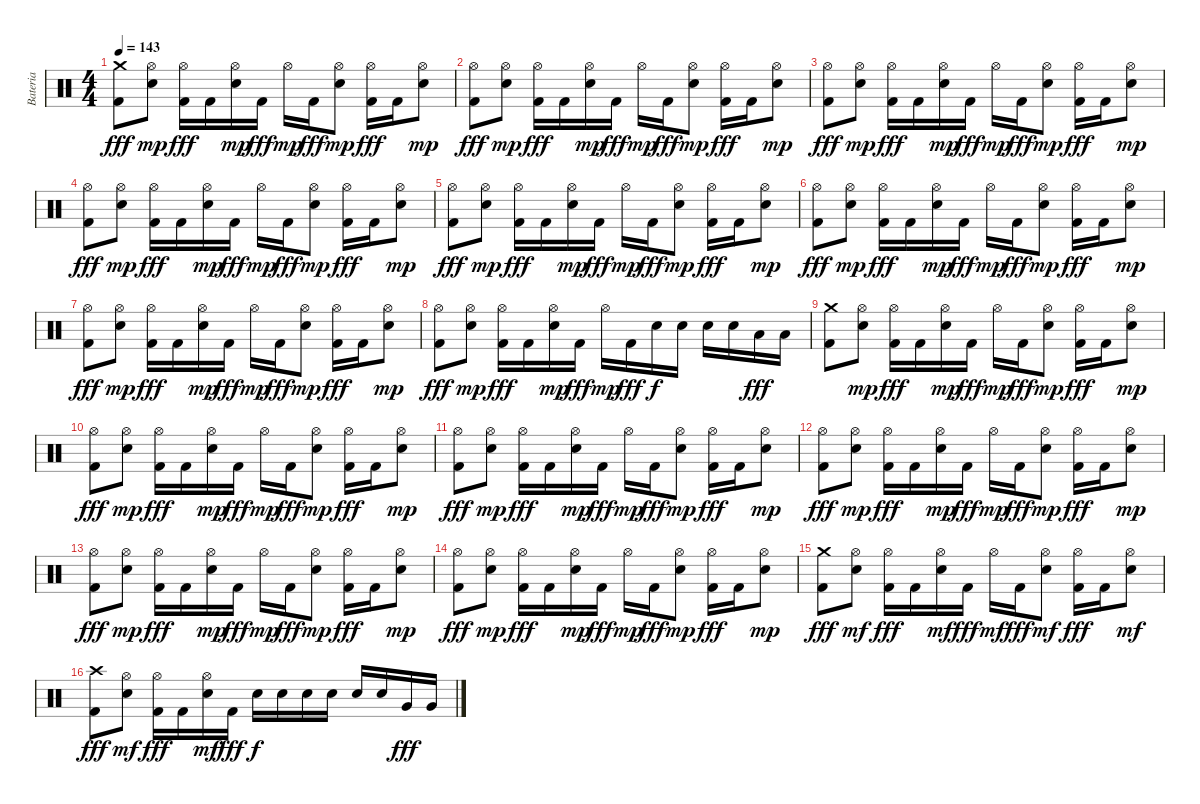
\track ("Bateria" "Bateria") {instrument percussion}
\staff {score}
\articulation defaults
\ts (4 4)
\tempo 143
\clef neutral
\ks c
("Crash medium (hit)" "Kick (hit) 2").8{dy fff} ("Hi-Hat (open)" "Electric Snare (hit)").8{dy mp} ("Hi-Hat (open)" "Kick (hit) 2").16{dy fff} "Kick (hit) 2".16 ("Hi-Hat (open)" "Electric Snare (hit)").16{dy mp} "Kick (hit) 2".16{dy fff} "Hi-Hat (open)".16{dy mp} "Kick (hit) 2".16{dy fff} ("Hi-Hat (open)" "Electric Snare (hit)").8{dy mp} ("Hi-Hat (open)" "Kick (hit) 2").16{dy fff} "Kick (hit) 2".16 ("Hi-Hat (open)" "Electric Snare (hit)").8{dy mp} |
("Hi-Hat (open)" "Kick (hit) 2").8{dy fff} ("Hi-Hat (open)" "Electric Snare (hit)").8{dy mp} ("Hi-Hat (open)" "Kick (hit) 2").16{dy fff} "Kick (hit) 2".16 ("Hi-Hat (open)" "Electric Snare (hit)").16{dy mp} "Kick (hit) 2".16{dy fff} "Hi-Hat (open)".16{dy mp} "Kick (hit) 2".16{dy fff} ("Hi-Hat (open)" "Electric Snare (hit)").8{dy mp} ("Hi-Hat (open)" "Kick (hit) 2").16{dy fff} "Kick (hit) 2".16 ("Hi-Hat (open)" "Electric Snare (hit)").8{dy mp} |
("Hi-Hat (open)" "Kick (hit) 2").8{dy fff} ("Hi-Hat (open)" "Electric Snare (hit)").8{dy mp} ("Hi-Hat (open)" "Kick (hit) 2").16{dy fff} "Kick (hit) 2".16 ("Hi-Hat (open)" "Electric Snare (hit)").16{dy mp} "Kick (hit) 2".16{dy fff} "Hi-Hat (open)".16{dy mp} "Kick (hit) 2".16{dy fff} ("Hi-Hat (open)" "Electric Snare (hit)").8{dy mp} ("Hi-Hat (open)" "Kick (hit) 2").16{dy fff} "Kick (hit) 2".16 ("Hi-Hat (open)" "Electric Snare (hit)").8{dy mp} |
("Hi-Hat (open)" "Kick (hit) 2").8{dy fff} ("Hi-Hat (open)" "Electric Snare (hit)").8{dy mp} ("Hi-Hat (open)" "Kick (hit) 2").16{dy fff} "Kick (hit) 2".16 ("Hi-Hat (open)" "Electric Snare (hit)").16{dy mp} "Kick (hit) 2".16{dy fff} "Hi-Hat (open)".16{dy mp} "Kick (hit) 2".16{dy fff} ("Hi-Hat (open)" "Electric Snare (hit)").8{dy mp} ("Hi-Hat (open)" "Kick (hit) 2").16{dy fff} "Kick (hit) 2".16 ("Hi-Hat (open)" "Electric Snare (hit)").8{dy mp} |
("Hi-Hat (open)" "Kick (hit) 2").8{dy fff} ("Hi-Hat (open)" "Electric Snare (hit)").8{dy mp} ("Hi-Hat (open)" "Kick (hit) 2").16{dy fff} "Kick (hit) 2".16 ("Hi-Hat (open)" "Electric Snare (hit)").16{dy mp} "Kick (hit) 2".16{dy fff} "Hi-Hat (open)".16{dy mp} "Kick (hit) 2".16{dy fff} ("Hi-Hat (open)" "Electric Snare (hit)").8{dy mp} ("Hi-Hat (open)" "Kick (hit) 2").16{dy fff} "Kick (hit) 2".16 ("Hi-Hat (open)" "Electric Snare (hit)").8{dy mp} |
("Hi-Hat (open)" "Kick (hit) 2").8{dy fff} ("Hi-Hat (open)" "Electric Snare (hit)").8{dy mp} ("Hi-Hat (open)" "Kick (hit) 2").16{dy fff} "Kick (hit) 2".16 ("Hi-Hat (open)" "Electric Snare (hit)").16{dy mp} "Kick (hit) 2".16{dy fff} "Hi-Hat (open)".16{dy mp} "Kick (hit) 2".16{dy fff} ("Hi-Hat (open)" "Electric Snare (hit)").8{dy mp} ("Hi-Hat (open)" "Kick (hit) 2").16{dy fff} "Kick (hit) 2".16 ("Hi-Hat (open)" "Electric Snare (hit)").8{dy mp} |
("Hi-Hat (open)" "Kick (hit) 2").8{dy fff} ("Hi-Hat (open)" "Electric Snare (hit)").8{dy mp} ("Hi-Hat (open)" "Kick (hit) 2").16{dy fff} "Kick (hit) 2".16 ("Hi-Hat (open)" "Electric Snare (hit)").16{dy mp} "Kick (hit) 2".16{dy fff} "Hi-Hat (open)".16{dy mp} "Kick (hit) 2".16{dy fff} ("Hi-Hat (open)" "Electric Snare (hit)").8{dy mp} ("Hi-Hat (open)" "Kick (hit) 2").16{dy fff} "Kick (hit) 2".16 ("Hi-Hat (open)" "Electric Snare (hit)").8{dy mp} |
("Hi-Hat (open)" "Kick (hit) 2").8{dy fff} ("Hi-Hat (open)" "Electric Snare (hit)").8{dy mp} ("Hi-Hat (open)" "Kick (hit) 2").16{dy fff} "Kick (hit) 2".16 ("Hi-Hat (open)" "Electric Snare (hit)").16{dy mp} "Kick (hit) 2".16{dy fff} "Hi-Hat (open)".16{dy mp} "Kick (hit) 2".16{dy fff} "Electric Snare (hit)".16{dy f} "Electric Snare (hit)".16 "Electric Snare (hit)".16 "Electric Snare (hit)".16 "Low Tom (hit)".16{dy fff} "Low Tom (hit)".16 |
("Crash medium (hit)" "Kick (hit) 2").8 ("Hi-Hat (open)" "Electric Snare (hit)").8{dy mp} ("Hi-Hat (open)" "Kick (hit) 2").16{dy fff} "Kick (hit) 2".16 ("Hi-Hat (open)" "Electric Snare (hit)").16{dy mp} "Kick (hit) 2".16{dy fff} "Hi-Hat (open)".16{dy mp} "Kick (hit) 2".16{dy fff} ("Hi-Hat (open)" "Electric Snare (hit)").8{dy mp} ("Hi-Hat (open)" "Kick (hit) 2").16{dy fff} "Kick (hit) 2".16 ("Hi-Hat (open)" "Electric Snare (hit)").8{dy mp} |
("Hi-Hat (open)" "Kick (hit) 2").8{dy fff} ("Hi-Hat (open)" "Electric Snare (hit)").8{dy mp} ("Hi-Hat (open)" "Kick (hit) 2").16{dy fff} "Kick (hit) 2".16 ("Hi-Hat (open)" "Electric Snare (hit)").16{dy mp} "Kick (hit) 2".16{dy fff} "Hi-Hat (open)".16{dy mp} "Kick (hit) 2".16{dy fff} ("Hi-Hat (open)" "Electric Snare (hit)").8{dy mp} ("Hi-Hat (open)" "Kick (hit) 2").16{dy fff} "Kick (hit) 2".16 ("Hi-Hat (open)" "Electric Snare (hit)").8{dy mp} |
("Hi-Hat (open)" "Kick (hit) 2").8{dy fff} ("Hi-Hat (open)" "Electric Snare (hit)").8{dy mp} ("Hi-Hat (open)" "Kick (hit) 2").16{dy fff} "Kick (hit) 2".16 ("Hi-Hat (open)" "Electric Snare (hit)").16{dy mp} "Kick (hit) 2".16{dy fff} "Hi-Hat (open)".16{dy mp} "Kick (hit) 2".16{dy fff} ("Hi-Hat (open)" "Electric Snare (hit)").8{dy mp} ("Hi-Hat (open)" "Kick (hit) 2").16{dy fff} "Kick (hit) 2".16 ("Hi-Hat (open)" "Electric Snare (hit)").8{dy mp} |
("Hi-Hat (open)" "Kick (hit) 2").8{dy fff} ("Hi-Hat (open)" "Electric Snare (hit)").8{dy mp} ("Hi-Hat (open)" "Kick (hit) 2").16{dy fff} "Kick (hit) 2".16 ("Hi-Hat (open)" "Electric Snare (hit)").16{dy mp} "Kick (hit) 2".16{dy fff} "Hi-Hat (open)".16{dy mp} "Kick (hit) 2".16{dy fff} ("Hi-Hat (open)" "Electric Snare (hit)").8{dy mp} ("Hi-Hat (open)" "Kick (hit) 2").16{dy fff} "Kick (hit) 2".16 ("Hi-Hat (open)" "Electric Snare (hit)").8{dy mp} |
("Hi-Hat (open)" "Kick (hit) 2").8{dy fff} ("Hi-Hat (open)" "Electric Snare (hit)").8{dy mp} ("Hi-Hat (open)" "Kick (hit) 2").16{dy fff} "Kick (hit) 2".16 ("Hi-Hat (open)" "Electric Snare (hit)").16{dy mp} "Kick (hit) 2".16{dy fff} "Hi-Hat (open)".16{dy mp} "Kick (hit) 2".16{dy fff} ("Hi-Hat (open)" "Electric Snare (hit)").8{dy mp} ("Hi-Hat (open)" "Kick (hit) 2").16{dy fff} "Kick (hit) 2".16 ("Hi-Hat (open)" "Electric Snare (hit)").8{dy mp} |
("Hi-Hat (open)" "Kick (hit) 2").8{dy fff} ("Hi-Hat (open)" "Electric Snare (hit)").8{dy mp} ("Hi-Hat (open)" "Kick (hit) 2").16{dy fff} "Kick (hit) 2".16 ("Hi-Hat (open)" "Electric Snare (hit)").16{dy mp} "Kick (hit) 2".16{dy fff} "Hi-Hat (open)".16{dy mp} "Kick (hit) 2".16{dy fff} ("Hi-Hat (open)" "Electric Snare (hit)").8{dy mp} ("Hi-Hat (open)" "Kick (hit) 2").16{dy fff} "Kick (hit) 2".16 ("Hi-Hat (open)" "Electric Snare (hit)").8{dy mp} |
("Crash medium (hit)" "Kick (hit) 2").8{dy fff} ("Hi-Hat (open)" "Electric Snare (hit)").8{dy mf} ("Hi-Hat (open)" "Kick (hit) 2").16{dy fff} "Kick (hit) 2".16 ("Hi-Hat (open)" "Electric Snare (hit)").16{dy mf} "Kick (hit) 2".16{dy fff} "Hi-Hat (open)".16{dy mf} "Kick (hit) 2".16{dy fff} ("Hi-Hat (open)" "Electric Snare (hit)").8{dy mf} ("Hi-Hat (open)" "Kick (hit) 2").16{dy fff} "Kick (hit) 2".16 ("Hi-Hat (open)" "Electric Snare (hit)").8{dy mf} |
("Crash high (hit)" "Kick (hit) 2").8{dy fff} ("Hi-Hat (open)" "Electric Snare (hit)").8{dy mf} ("Hi-Hat (open)" "Kick (hit) 2").16{dy fff} "Kick (hit) 2".16 ("Hi-Hat (open)" "Electric Snare (hit)").16{dy mf} "Kick (hit) 2".16{dy fff} "Electric Snare (hit)".16{dy f} "Electric Snare (hit)".16 "Electric Snare (hit)".16 "Electric Snare (hit)".16 "Electric Snare (hit)".16 "Electric Snare (hit)".16 "Very Low Tom (hit)".16{dy fff} "Very Low Tom (hit)".16
